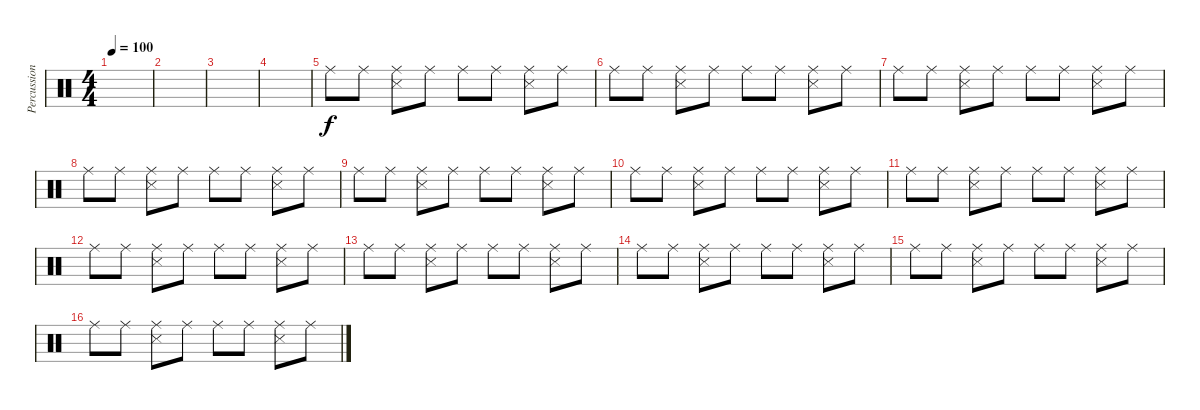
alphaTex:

\track ("Percussions (Moe Tucker)" "Percussion") {instrument percussion}
\staff {score}
\articulation defaults
\ts (4 4)
\tempo 100
\clef neutral
\ks c
|
|
|
|
"Ride (middle)".8 "Ride (middle)".8 ("Ride (middle)" "Snare (side stick) 3").8 "Ride (middle)".8 "Ride (middle)".8 "Ride (middle)".8 ("Ride (middle)" "Snare (side stick) 3").8 "Ride (middle)".8 |
"Ride (middle)".8 "Ride (middle)".8 ("Ride (middle)" "Snare (side stick) 3").8 "Ride (middle)".8 "Ride (middle)".8 "Ride (middle)".8 ("Ride (middle)" "Snare (side stick) 3").8 "Ride (middle)".8 |
"Ride (middle)".8 "Ride (middle)".8 ("Ride (middle)" "Snare (side stick) 3").8 "Ride (middle)".8 "Ride (middle)".8 "Ride (middle)".8 ("Ride (middle)" "Snare (side stick) 3").8 "Ride (middle)".8 |
"Ride (middle)".8 "Ride (middle)".8 ("Ride (middle)" "Snare (side stick) 3").8 "Ride (middle)".8 "Ride (middle)".8 "Ride (middle)".8 ("Ride (middle)" "Snare (side stick) 3").8 "Ride (middle)".8 |
"Ride (middle)".8 "Ride (middle)".8 ("Ride (middle)" "Snare (side stick) 3").8 "Ride (middle)".8 "Ride (middle)".8 "Ride (middle)".8 ("Ride (middle)" "Snare (side stick) 3").8 "Ride (middle)".8 |
"Ride (middle)".8 "Ride (middle)".8 ("Ride (middle)" "Snare (side stick) 3").8 "Ride (middle)".8 "Ride (middle)".8 "Ride (middle)".8 ("Ride (middle)" "Snare (side stick) 3").8 "Ride (middle)".8 |
"Ride (middle)".8 "Ride (middle)".8 ("Ride (middle)" "Snare (side stick) 3").8 "Ride (middle)".8 "Ride (middle)".8 "Ride (middle)".8 ("Ride (middle)" "Snare (side stick) 3").8 "Ride (middle)".8 |
"Ride (middle)".8 "Ride (middle)".8 ("Ride (middle)" "Snare (side stick) 3").8 "Ride (middle)".8 "Ride (middle)".8 "Ride (middle)".8 ("Ride (middle)" "Snare (side stick) 3").8 "Ride (middle)".8 |
"Ride (middle)".8 "Ride (middle)".8 ("Ride (middle)" "Snare (side stick) 3").8 "Ride (middle)".8 "Ride (middle)".8 "Ride (middle)".8 ("Ride (middle)" "Snare (side stick) 3").8 "Ride (middle)".8 |
"Ride (middle)".8 "Ride (middle)".8 ("Ride (middle)" "Snare (side stick) 3").8 "Ride (middle)".8 "Ride (middle)".8 "Ride (middle)".8 ("Ride (middle)" "Snare (side stick) 3").8 "Ride (middle)".8 |
"Ride (middle)".8 "Ride (middle)".8 ("Ride (middle)" "Snare (side stick) 3").8 "Ride (middle)".8 "Ride (middle)".8 "Ride (middle)".8 ("Ride (middle)" "Snare (side stick) 3").8 "Ride (middle)".8 |
"Ride (middle)".8 "Ride (middle)".8 ("Ride (middle)" "Snare (side stick) 3").8 "Ride (middle)".8 "Ride (middle)".8 "Ride (middle)".8 ("Ride (middle)" "Snare (side stick) 3").8 "Ride (middle)".8
